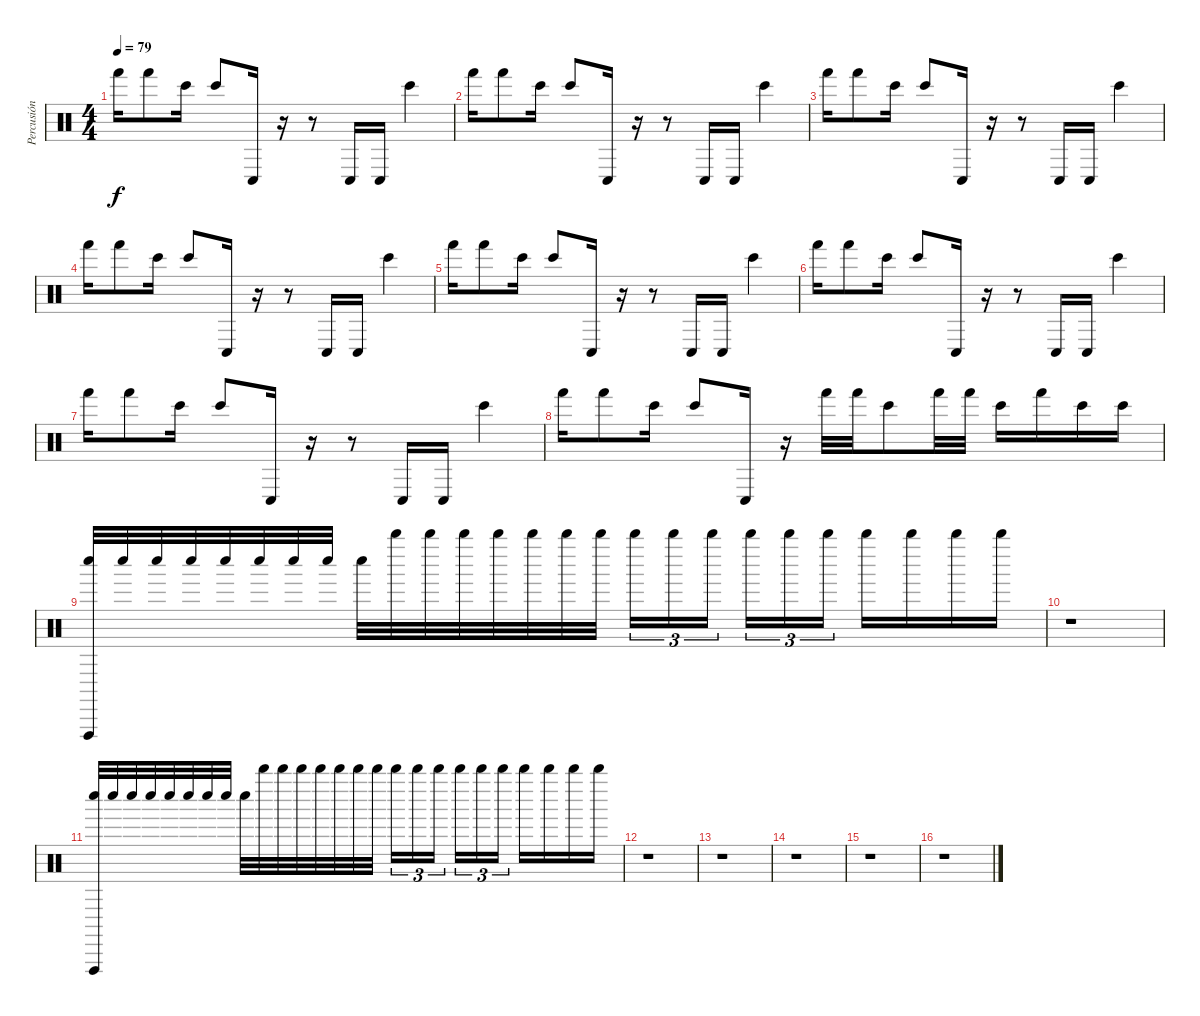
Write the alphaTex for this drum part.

\track ("Percusión" "Percusión") {instrument percussion}
\staff {score}
\articulation defaults
\ts (4 4)
\tempo 79
\clef neutral
\ks c "Hand (hit)".16{dy f} "Hand (hit)".8 "Bongo High (hit)".16 "Bongo High (hit)".8 "Conga low (hit)".16
r.16 r.8 "Conga low (hit)".16 "Conga low (hit)".16 "Bongo High (hit)".4 |
"Hand (hit)".16 "Hand (hit)".8 "Bongo High (hit)".16 "Bongo High (hit)".8 "Conga low (hit)".16 r.16 r.8 "Conga low (hit)".16 "Conga low (hit)".16 "Bongo High (hit)".4 |
"Hand (hit)".16 "Hand (hit)".8 "Bongo High (hit)".16 "Bongo High (hit)".8 "Conga low (hit)".16 r.16 r.8 "Conga low (hit)".16 "Conga low (hit)".16 "Bongo High (hit)".4 |
"Hand (hit)".16 "Hand (hit)".8 "Bongo High (hit)".16 "Bongo High (hit)".8 "Conga low (hit)".16 r.16 r.8 "Conga low (hit)".16 "Conga low (hit)".16 "Bongo High (hit)".4 |
"Hand (hit)".16 "Hand (hit)".8 "Bongo High (hit)".16 "Bongo High (hit)".8 "Conga low (hit)".16 r.16 r.8 "Conga low (hit)".16 "Conga low (hit)".16 "Bongo High (hit)".4 |
"Hand (hit)".16 "Hand (hit)".8 "Bongo High (hit)".16 "Bongo High (hit)".8 "Conga low (hit)".16 r.16 r.8 "Conga low (hit)".16 "Conga low (hit)".16 "Bongo High (hit)".4 |
"Hand (hit)".16 "Hand (hit)".8 "Bongo High (hit)".16 "Bongo High (hit)".8 "Conga low (hit)".16 r.16 r.8 "Conga low (hit)".16 "Conga low (hit)".16 "Bongo High (hit)".4 |
"Hand (hit)".16 "Hand (hit)".8 "Bongo High (hit)".16 "Bongo High (hit)".8 "Conga low (hit)".16 r.16 "Hand (hit)".32 "Hand (hit)".32 "Bongo High (hit)".8 "Hand (hit)".32 "Hand (hit)".32 "Bongo High (hit)".16 "Hand (hit)".16 "Bongo High (hit)".16 "Bongo High (hit)".16 |
("Whistle low (hit)" "Vibraslap (hit)").32 "Whistle low (hit)".32 "Whistle low (hit)".32 "Whistle low (hit)".32 "Whistle low (hit)".32 "Whistle low (hit)".32 "Whistle low (hit)".32 "Whistle low (hit)".32 "Whistle low (hit)".32 "Whistle high (hit)".32 "Whistle high (hit)".32 "Whistle high (hit)".32 "Whistle high (hit)".32 "Whistle high (hit)".32 "Whistle high (hit)".32 "Whistle high (hit)".32 "Whistle high (hit)".16{tu (3 2)} "Whistle high (hit)".16{tu (3 2)} "Whistle high (hit)".16{tu (3 2)} "Whistle high (hit)".16{tu (3 2)} "Whistle high (hit)".16{tu (3 2)} "Whistle high (hit)".16{tu (3 2)} "Whistle high (hit)".16 "Whistle high (hit)".16 "Whistle high (hit)".16 "Whistle high (hit)".16 |
r.1 |
("Whistle low (hit)" "Vibraslap (hit)").32 "Whistle low (hit)".32 "Whistle low (hit)".32 "Whistle low (hit)".32 "Whistle low (hit)".32 "Whistle low (hit)".32 "Whistle low (hit)".32 "Whistle low (hit)".32 "Whistle low (hit)".32 "Whistle high (hit)".32 "Whistle high (hit)".32 "Whistle high (hit)".32 "Whistle high (hit)".32 "Whistle high (hit)".32 "Whistle high (hit)".32 "Whistle high (hit)".32 "Whistle high (hit)".16{tu (3 2)} "Whistle high (hit)".16{tu (3 2)} "Whistle high (hit)".16{tu (3 2)} "Whistle high (hit)".16{tu (3 2)} "Whistle high (hit)".16{tu (3 2)} "Whistle high (hit)".16{tu (3 2)} "Whistle high (hit)".16 "Whistle high (hit)".16 "Whistle high (hit)".16 "Whistle high (hit)".16 |
r.1 |
r.1 |
r.1 |
r.1 |
r.1
